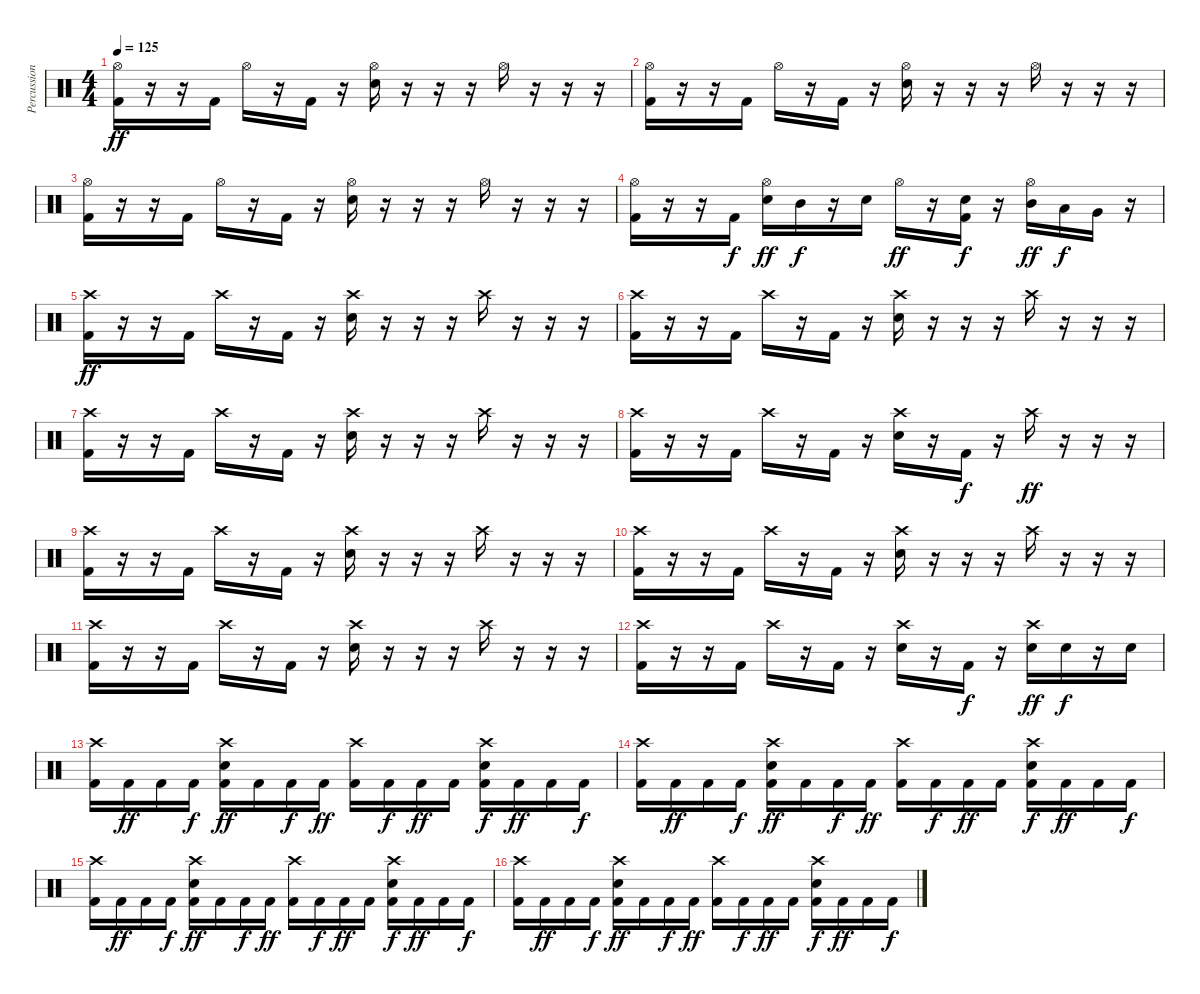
\track ("Percussion" "Percussion") {instrument percussion}
\staff {score}
\articulation defaults
\ts (4 4)
\tempo 125
\clef neutral
\ks c
("Hi-Hat (open)" "Kick (hit) 2").16{dy ff} r.16 r.16 "Kick (hit) 2".16 "Hi-Hat (open)".16 r.16 "Kick (hit) 2".16 r.16 ("Hi-Hat (open)" "Electric Snare (hit)").16 r.16 r.16 r.16 "Hi-Hat (open)".16 r.16 r.16 r.16 |
("Hi-Hat (open)" "Kick (hit) 2").16 r.16 r.16 "Kick (hit) 2".16 "Hi-Hat (open)".16 r.16 "Kick (hit) 2".16 r.16 ("Hi-Hat (open)" "Electric Snare (hit)").16 r.16 r.16 r.16 "Hi-Hat (open)".16 r.16 r.16 r.16 |
("Hi-Hat (open)" "Kick (hit) 2").16 r.16 r.16 "Kick (hit) 2".16 "Hi-Hat (open)".16 r.16 "Kick (hit) 2".16 r.16 ("Hi-Hat (open)" "Electric Snare (hit)").16 r.16 r.16 r.16 "Hi-Hat (open)".16 r.16 r.16 r.16 |
("Hi-Hat (open)" "Kick (hit) 2").16 r.16 r.16 "Kick (hit) 2".16{dy f} ("Hi-Hat (open)" "Electric Snare (hit)").16{dy ff} "Mid Tom (hit)".16{dy f} r.16 "Electric Snare (hit)".16 "Hi-Hat (open)".16{dy ff} r.16 ("Electric Snare (hit)" "Kick (hit) 2").16{dy f} r.16 ("Hi-Hat (open)" "Mid Tom (hit)").16{dy ff} "Low Tom (hit)".16{dy f} "Very Low Tom (hit)".16 r.16 |
("Crash high (hit)" "Kick (hit) 2").16{dy ff} r.16 r.16 "Kick (hit) 2".16 "Crash high (hit)".16 r.16 "Kick (hit) 2".16 r.16 ("Crash high (hit)" "Electric Snare (hit)").16 r.16 r.16 r.16 "Crash high (hit)".16 r.16 r.16 r.16 |
("Crash high (hit)" "Kick (hit) 2").16 r.16 r.16 "Kick (hit) 2".16 "Crash high (hit)".16 r.16 "Kick (hit) 2".16 r.16 ("Crash high (hit)" "Electric Snare (hit)").16 r.16 r.16 r.16 "Crash high (hit)".16 r.16 r.16 r.16 |
("Crash high (hit)" "Kick (hit) 2").16 r.16 r.16 "Kick (hit) 2".16 "Crash high (hit)".16 r.16 "Kick (hit) 2".16 r.16 ("Crash high (hit)" "Electric Snare (hit)").16 r.16 r.16 r.16 "Crash high (hit)".16 r.16 r.16 r.16 |
("Crash high (hit)" "Kick (hit) 2").16 r.16 r.16 "Kick (hit) 2".16 "Crash high (hit)".16 r.16 "Kick (hit) 2".16 r.16 ("Crash high (hit)" "Electric Snare (hit)").16 r.16 "Kick (hit) 2".16{dy f} r.16 "Crash high (hit)".16{dy ff} r.16 r.16 r.16 |
("Crash high (hit)" "Kick (hit) 2").16 r.16 r.16 "Kick (hit) 2".16 "Crash high (hit)".16 r.16 "Kick (hit) 2".16 r.16 ("Crash high (hit)" "Electric Snare (hit)").16 r.16 r.16 r.16 "Crash high (hit)".16 r.16 r.16 r.16 |
("Crash high (hit)" "Kick (hit) 2").16 r.16 r.16 "Kick (hit) 2".16 "Crash high (hit)".16 r.16 "Kick (hit) 2".16 r.16 ("Crash high (hit)" "Electric Snare (hit)").16 r.16 r.16 r.16 "Crash high (hit)".16 r.16 r.16 r.16 |
("Crash high (hit)" "Kick (hit) 2").16 r.16 r.16 "Kick (hit) 2".16 "Crash high (hit)".16 r.16 "Kick (hit) 2".16 r.16 ("Crash high (hit)" "Electric Snare (hit)").16 r.16 r.16 r.16 "Crash high (hit)".16 r.16 r.16 r.16 |
("Crash high (hit)" "Kick (hit) 2").16 r.16 r.16 "Kick (hit) 2".16 "Crash high (hit)".16 r.16 "Kick (hit) 2".16 r.16 ("Crash high (hit)" "Electric Snare (hit)").16 r.16 "Kick (hit) 2".16{dy f} r.16 ("Crash high (hit)" "Electric Snare (hit)").16{dy ff} "Electric Snare (hit)".16{dy f} r.16 "Electric Snare (hit)".16 |
("Crash high (hit)" "Kick (hit) 2").16 "Kick (hit) 2".16{dy ff} "Kick (hit) 2".16 "Kick (hit) 2".16{dy f} ("Crash high (hit)" "Electric Snare (hit)" "Kick (hit) 2").16{dy ff} "Kick (hit) 2".16 "Kick (hit) 2".16{dy f} "Kick (hit) 2".16{dy ff} ("Crash high (hit)" "Kick (hit) 2").16 "Kick (hit) 2".16{dy f} "Kick (hit) 2".16{dy ff} "Kick (hit) 2".16 ("Crash high (hit)" "Electric Snare (hit)" "Kick (hit) 2").16{dy f} "Kick (hit) 2".16{dy ff} "Kick (hit) 2".16 "Kick (hit) 2".16{dy f} |
("Crash high (hit)" "Kick (hit) 2").16 "Kick (hit) 2".16{dy ff} "Kick (hit) 2".16 "Kick (hit) 2".16{dy f} ("Crash high (hit)" "Electric Snare (hit)" "Kick (hit) 2").16{dy ff} "Kick (hit) 2".16 "Kick (hit) 2".16{dy f} "Kick (hit) 2".16{dy ff} ("Crash high (hit)" "Kick (hit) 2").16 "Kick (hit) 2".16{dy f} "Kick (hit) 2".16{dy ff} "Kick (hit) 2".16 ("Crash high (hit)" "Electric Snare (hit)" "Kick (hit) 2").16{dy f} "Kick (hit) 2".16{dy ff} "Kick (hit) 2".16 "Kick (hit) 2".16{dy f} |
("Crash high (hit)" "Kick (hit) 2").16 "Kick (hit) 2".16{dy ff} "Kick (hit) 2".16 "Kick (hit) 2".16{dy f} ("Crash high (hit)" "Electric Snare (hit)" "Kick (hit) 2").16{dy ff} "Kick (hit) 2".16 "Kick (hit) 2".16{dy f} "Kick (hit) 2".16{dy ff} ("Crash high (hit)" "Kick (hit) 2").16 "Kick (hit) 2".16{dy f} "Kick (hit) 2".16{dy ff} "Kick (hit) 2".16 ("Crash high (hit)" "Electric Snare (hit)" "Kick (hit) 2").16{dy f} "Kick (hit) 2".16{dy ff} "Kick (hit) 2".16 "Kick (hit) 2".16{dy f} |
("Crash high (hit)" "Kick (hit) 2").16 "Kick (hit) 2".16{dy ff} "Kick (hit) 2".16 "Kick (hit) 2".16{dy f} ("Crash high (hit)" "Electric Snare (hit)" "Kick (hit) 2").16{dy ff} "Kick (hit) 2".16 "Kick (hit) 2".16{dy f} "Kick (hit) 2".16{dy ff} ("Crash high (hit)" "Kick (hit) 2").16 "Kick (hit) 2".16{dy f} "Kick (hit) 2".16{dy ff} "Kick (hit) 2".16 ("Crash high (hit)" "Electric Snare (hit)" "Kick (hit) 2").16{dy f} "Kick (hit) 2".16{dy ff} "Kick (hit) 2".16 "Kick (hit) 2".16{dy f}
